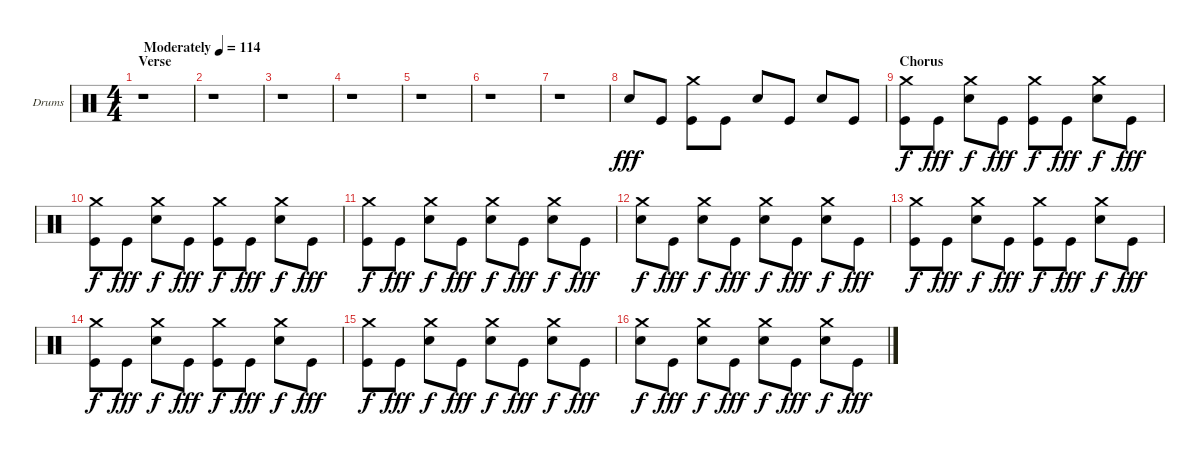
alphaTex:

\defaultSystemsLayout 4
\bracketExtendMode groupsimilarinstruments
\firstSystemTrackNameOrientation horizontal
\otherSystemsTrackNameOrientation horizontal
\track ("Drumkit" "Drums") {instrument percussion}
\staff {score}
\articulation defaults
\ts (4 4)
\section ("" "Verse")
\tempo (114 "Moderately")
\clef neutral
\scale
1.11349
\ks c
r.1{dy fff} |
\scale
0.943253 r.1 |
\scale
0.943253 r.1 |
\scale
1.05296 r.1 |
\scale
0.973518 r.1 |
\scale
0.973518 r.1 |
\scale
1.05296 r.1 |
\scale
0.973518 "Snare (hit) 2".8 "Kick (hit)".8 ("Crash medium (hit)" "Kick (hit)").8 "Kick (hit)".8 "Snare (hit) 2".8 "Kick (hit)".8 "Snare (hit) 2".8 "Kick (hit)".8 |
\section ("" "Chorus")
\scale
0.973518 ("Crash medium (hit)" "Kick (hit)").8{dy f} "Kick (hit)".8{dy fff} ("Crash medium (hit)" "Snare (hit) 2").8{dy f} "Kick (hit)".8{dy fff} ("Crash medium (hit)" "Kick (hit)").8{dy f} "Kick (hit)".8{dy fff} ("Crash medium (hit)" "Snare (hit) 2").8{dy f} "Kick (hit)".8{dy fff} |
\scale
1.05296 ("Crash medium (hit)" "Kick (hit)").8{dy f} "Kick (hit)".8{dy fff} ("Crash medium (hit)" "Snare (hit) 2").8{dy f} "Kick (hit)".8{dy fff} ("Crash medium (hit)" "Kick (hit)").8{dy f} "Kick (hit)".8{dy fff} ("Crash medium (hit)" "Snare (hit) 2").8{dy f} "Kick (hit)".8{dy fff} |
\scale
0.973518 ("Crash medium (hit)" "Kick (hit)").8{dy f} "Kick (hit)".8{dy fff} ("Crash medium (hit)" "Snare (hit) 2").8{dy f} "Kick (hit)".8{dy fff} ("Crash medium (hit)" "Snare (hit) 2").8{dy f} "Kick (hit)".8{dy fff} ("Crash medium (hit)" "Snare (hit) 2").8{dy f} "Kick (hit)".8{dy fff} |
\scale
0.973518 ("Crash medium (hit)" "Snare (hit) 2").8{dy f} "Kick (hit)".8{dy fff} ("Crash medium (hit)" "Snare (hit) 2").8{dy f} "Kick (hit)".8{dy fff} ("Crash medium (hit)" "Snare (hit) 2").8{dy f} "Kick (hit)".8{dy fff} ("Crash medium (hit)" "Snare (hit) 2").8{dy f} "Kick (hit)".8{dy fff} |
\scale
1.05296 ("Crash medium (hit)" "Kick (hit)").8{dy f} "Kick (hit)".8{dy fff} ("Crash medium (hit)" "Snare (hit) 2").8{dy f} "Kick (hit)".8{dy fff} ("Crash medium (hit)" "Kick (hit)").8{dy f} "Kick (hit)".8{dy fff} ("Crash medium (hit)" "Snare (hit) 2").8{dy f} "Kick (hit)".8{dy fff} |
\scale
0.973518 ("Crash medium (hit)" "Kick (hit)").8{dy f} "Kick (hit)".8{dy fff} ("Crash medium (hit)" "Snare (hit) 2").8{dy f} "Kick (hit)".8{dy fff} ("Crash medium (hit)" "Kick (hit)").8{dy f} "Kick (hit)".8{dy fff} ("Crash medium (hit)" "Snare (hit) 2").8{dy f} "Kick (hit)".8{dy fff} |
\scale
0.973518 ("Crash medium (hit)" "Kick (hit)").8{dy f} "Kick (hit)".8{dy fff} ("Crash medium (hit)" "Snare (hit) 2").8{dy f} "Kick (hit)".8{dy fff} ("Crash medium (hit)" "Snare (hit) 2").8{dy f} "Kick (hit)".8{dy fff} ("Crash medium (hit)" "Snare (hit) 2").8{dy f} "Kick (hit)".8{dy fff} |
\scale
1.05296 ("Crash medium (hit)" "Snare (hit) 2").8{dy f} "Kick (hit)".8{dy fff} ("Crash medium (hit)" "Snare (hit) 2").8{dy f} "Kick (hit)".8{dy fff} ("Crash medium (hit)" "Snare (hit) 2").8{dy f} "Kick (hit)".8{dy fff} ("Crash medium (hit)" "Snare (hit) 2").8{dy f} "Kick (hit)".8{dy fff}
